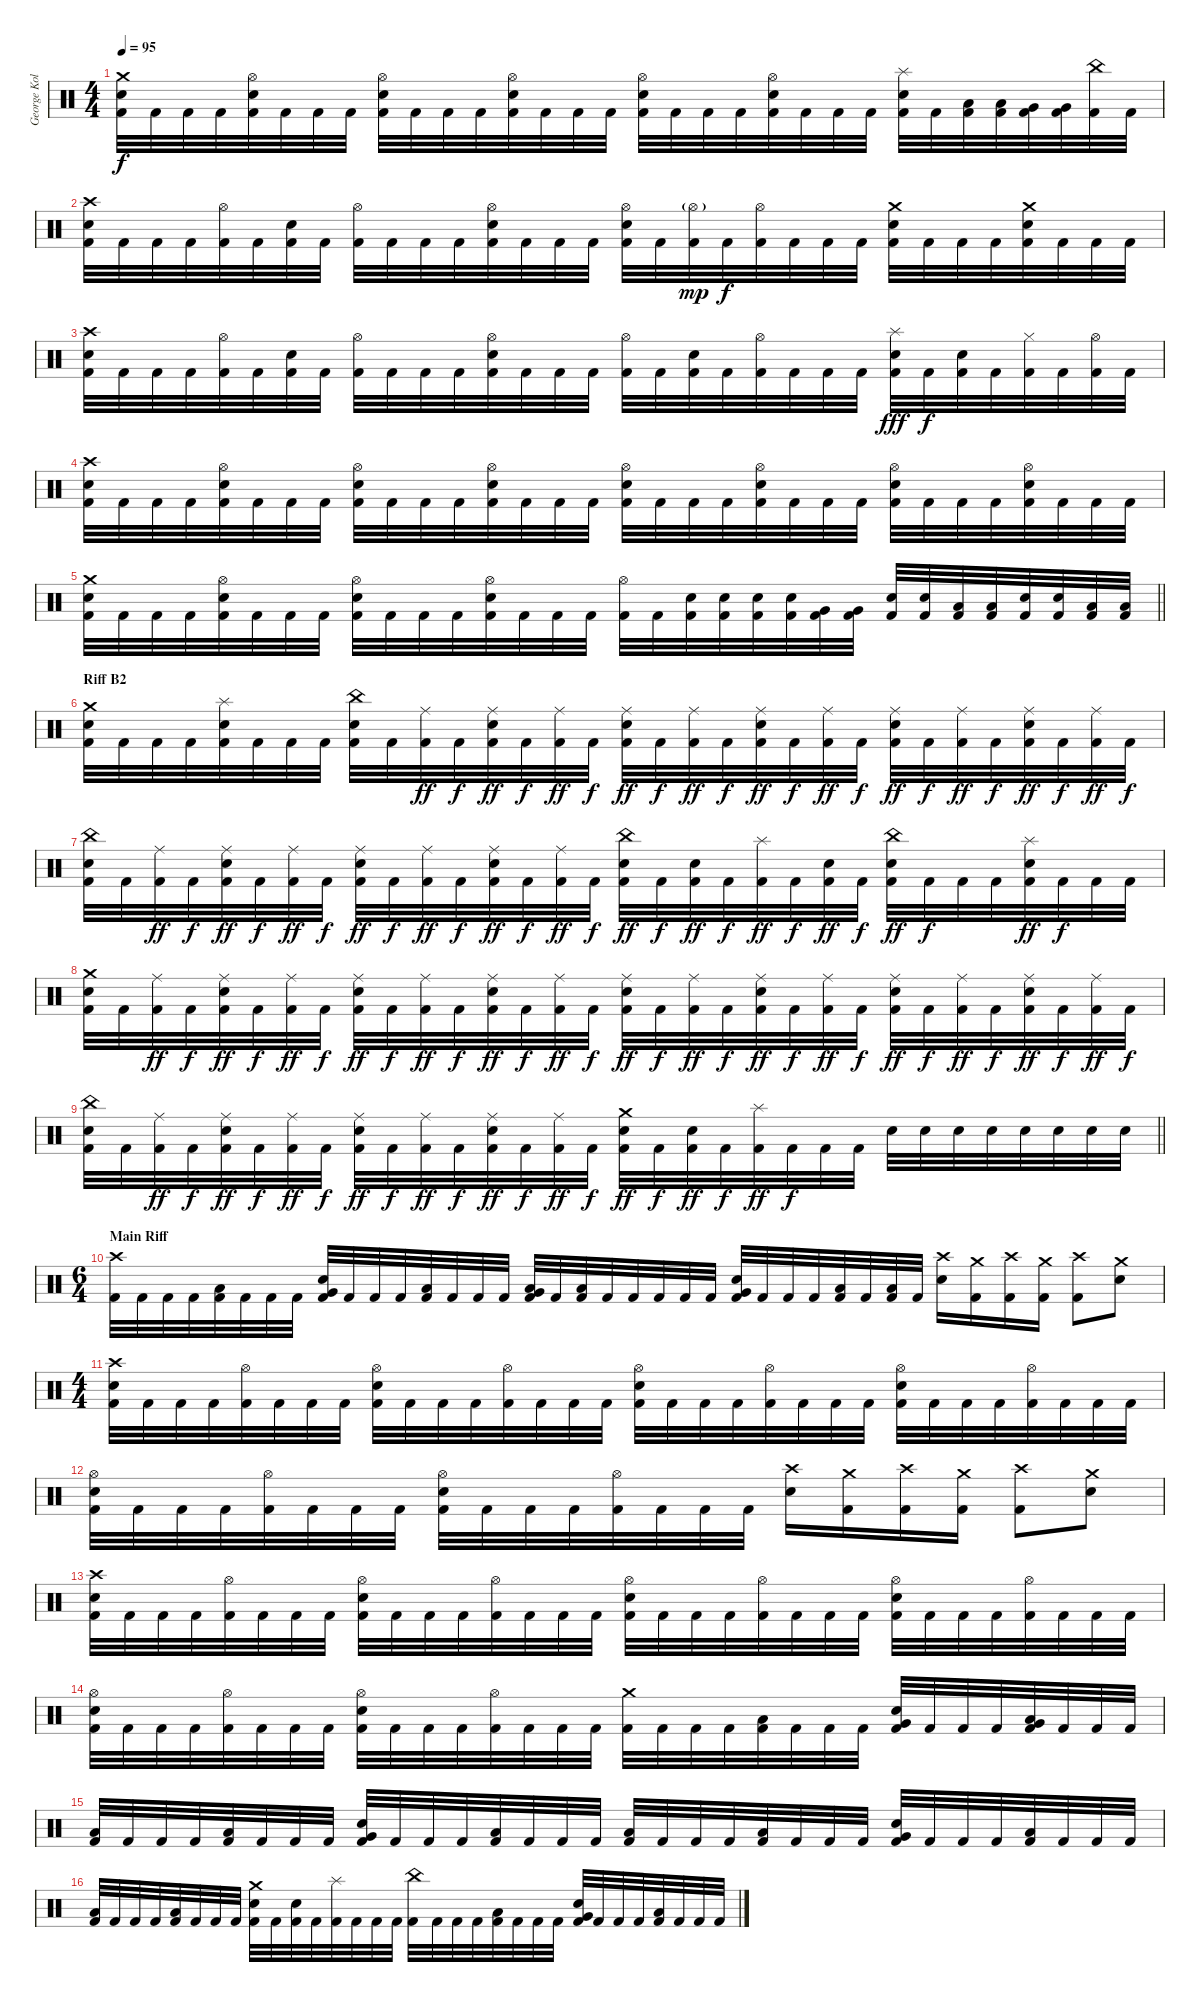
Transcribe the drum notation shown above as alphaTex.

\track ("George Kollias" "George Kol") {instrument percussion}
\staff {score}
\articulation defaults
\ts (4 4)
\tempo 95
\clef neutral
\ks c
("Crash medium (hit)" "Snare (hit) 2" "Kick (hit) 2").32{dy f} "Kick (hit) 2".32 "Kick (hit) 2".32 "Kick (hit) 2".32 ("Hi-Hat (open)" "Snare (hit) 2" "Kick (hit) 2").32 "Kick (hit) 2".32 "Kick (hit) 2".32 "Kick (hit) 2".32 ("Hi-Hat (open)" "Snare (hit) 2" "Kick (hit) 2").32 "Kick (hit) 2".32 "Kick (hit) 2".32 "Kick (hit) 2".32 ("Hi-Hat (open)" "Snare (hit) 2" "Kick (hit) 2").32 "Kick (hit) 2".32 "Kick (hit) 2".32 "Kick (hit) 2".32 ("Hi-Hat (open)" "Snare (hit) 2" "Kick (hit) 2").32 "Kick (hit) 2".32 "Kick (hit) 2".32 "Kick (hit) 2".32 ("Hi-Hat (open)" "Snare (hit) 2" "Kick (hit) 2").32 "Kick (hit) 2".32 "Kick (hit) 2".32 "Kick (hit) 2".32 ("Splash (hit)" "Snare (hit) 2" "Kick (hit) 2").32 "Kick (hit) 2".32 ("Low Tom (hit)" "Kick (hit) 2").32 ("Low Tom (hit)" "Kick (hit) 2").32 ("Very Low Tom (hit)" "Kick (hit) 2").32 ("Very Low Tom (hit)" "Kick (hit) 2").32 ("China (hit)" "Kick (hit) 2").32 "Kick (hit) 2".32 |
("Crash high (hit)" "Snare (hit) 2" "Kick (hit) 2").32 "Kick (hit) 2".32 "Kick (hit) 2".32 "Kick (hit) 2".32 ("Hi-Hat (open)" "Kick (hit) 2").32 "Kick (hit) 2".32 ("Snare (hit) 2" "Kick (hit) 2").32 "Kick (hit) 2".32 ("Hi-Hat (open)" "Kick (hit) 2").32 "Kick (hit) 2".32 "Kick (hit) 2".32 "Kick (hit) 2".32 ("Hi-Hat (open)" "Snare (hit) 2" "Kick (hit) 2").32 "Kick (hit) 2".32 "Kick (hit) 2".32 "Kick (hit) 2".32 ("Hi-Hat (open)" "Snare (hit) 2" "Kick (hit) 2").32 "Kick (hit) 2".32 ("Hi-Hat (open)"{g} "Kick (hit) 2").32{dy mp} "Kick (hit) 2".32{dy f} ("Hi-Hat (open)" "Kick (hit) 2").32 "Kick (hit) 2".32 "Kick (hit) 2".32 "Kick (hit) 2".32 ("Crash medium (hit)" "Snare (hit) 2" "Kick (hit) 2").32 "Kick (hit) 2".32 "Kick (hit) 2".32 "Kick (hit) 2".32 ("Crash medium (hit)" "Snare (hit) 2" "Kick (hit) 2").32 "Kick (hit) 2".32 "Kick (hit) 2".32 "Kick (hit) 2".32 |
("Crash high (hit)" "Snare (hit) 2" "Kick (hit) 2").32 "Kick (hit) 2".32 "Kick (hit) 2".32 "Kick (hit) 2".32 ("Hi-Hat (open)" "Kick (hit) 2").32 "Kick (hit) 2".32 ("Snare (hit) 2" "Kick (hit) 2").32 "Kick (hit) 2".32 ("Hi-Hat (open)" "Kick (hit) 2").32 "Kick (hit) 2".32 "Kick (hit) 2".32 "Kick (hit) 2".32 ("Hi-Hat (open)" "Snare (hit) 2" "Kick (hit) 2").32 "Kick (hit) 2".32 "Kick (hit) 2".32 "Kick (hit) 2".32 ("Hi-Hat (open)" "Kick (hit) 2").32 "Kick (hit) 2".32 ("Snare (hit) 2" "Kick (hit) 2").32 "Kick (hit) 2".32 ("Hi-Hat (open)" "Kick (hit) 2").32 "Kick (hit) 2".32 "Kick (hit) 2".32 "Kick (hit) 2".32 ("Splash (hit)" "Snare (hit) 2" "Kick (hit) 2").32{dy fff} "Kick (hit) 2".32{dy f} ("Snare (hit) 2" "Kick (hit) 2").32 "Kick (hit) 2".32 ("Hi-Hat (closed)" "Kick (hit) 2").32 "Kick (hit) 2".32 ("Hi-Hat (open)" "Kick (hit) 2").32 "Kick (hit) 2".32 |
("Crash high (hit)" "Snare (hit) 2" "Kick (hit) 2").32 "Kick (hit) 2".32 "Kick (hit) 2".32 "Kick (hit) 2".32 ("Hi-Hat (open)" "Snare (hit) 2" "Kick (hit) 2").32 "Kick (hit) 2".32 "Kick (hit) 2".32 "Kick (hit) 2".32 ("Hi-Hat (open)" "Snare (hit) 2" "Kick (hit) 2").32 "Kick (hit) 2".32 "Kick (hit) 2".32 "Kick (hit) 2".32 ("Hi-Hat (open)" "Snare (hit) 2" "Kick (hit) 2").32 "Kick (hit) 2".32 "Kick (hit) 2".32 "Kick (hit) 2".32 ("Hi-Hat (open)" "Snare (hit) 2" "Kick (hit) 2").32 "Kick (hit) 2".32 "Kick (hit) 2".32 "Kick (hit) 2".32 ("Hi-Hat (open)" "Snare (hit) 2" "Kick (hit) 2").32 "Kick (hit) 2".32 "Kick (hit) 2".32 "Kick (hit) 2".32 ("Hi-Hat (open)" "Snare (hit) 2" "Kick (hit) 2").32 "Kick (hit) 2".32 "Kick (hit) 2".32 "Kick (hit) 2".32 ("Hi-Hat (open)" "Snare (hit) 2" "Kick (hit) 2").32 "Kick (hit) 2".32 "Kick (hit) 2".32 "Kick (hit) 2".32 |
\barLineRight lightlight
("Crash medium (hit)" "Snare (hit) 2" "Kick (hit) 2").32 "Kick (hit) 2".32 "Kick (hit) 2".32 "Kick (hit) 2".32 ("Hi-Hat (open)" "Snare (hit) 2" "Kick (hit) 2").32 "Kick (hit) 2".32 "Kick (hit) 2".32 "Kick (hit) 2".32 ("Hi-Hat (open)" "Snare (hit) 2" "Kick (hit) 2").32 "Kick (hit) 2".32 "Kick (hit) 2".32 "Kick (hit) 2".32 ("Hi-Hat (open)" "Snare (hit) 2" "Kick (hit) 2").32 "Kick (hit) 2".32 "Kick (hit) 2".32 "Kick (hit) 2".32 ("Hi-Hat (open)" "Kick (hit) 2").32 "Kick (hit) 2".32 ("Snare (hit) 2" "Kick (hit) 2").32 ("Snare (hit) 2" "Kick (hit) 2").32 ("Snare (hit) 2" "Kick (hit) 2").32 ("Snare (hit) 2" "Kick (hit) 2").32 ("Very Low Tom (hit)" "Kick (hit) 2").32 ("Very Low Tom (hit)" "Kick (hit) 2").32 ("Snare (hit) 2" "Kick (hit) 2").32 ("Snare (hit) 2" "Kick (hit) 2").32 ("Low Tom (hit)" "Kick (hit) 2").32 ("Low Tom (hit)" "Kick (hit) 2").32 ("Snare (hit) 2" "Kick (hit) 2").32 ("Snare (hit) 2" "Kick (hit) 2").32 ("Low Floor Tom (hit)" "Kick (hit) 2").32 ("Low Floor Tom (hit)" "Kick (hit) 2").32 |
\section ("" "Riff B2 ")
("Crash medium (hit)" "Snare (hit) 2" "Kick (hit) 2").32 "Kick (hit) 2".32 "Kick (hit) 2".32 "Kick (hit) 2".32 ("Splash (hit)" "Snare (hit) 2" "Kick (hit) 2").32 "Kick (hit) 2".32 "Kick (hit) 2".32 "Kick (hit) 2".32 ("China (hit)" "Snare (hit) 2" "Kick (hit) 2").32 "Kick (hit) 2".32 ("Ride (middle)" "Kick (hit) 2").32{dy ff} "Kick (hit) 2".32{dy f} ("Ride (middle)" "Snare (hit) 2" "Kick (hit) 2").32{dy ff} "Kick (hit) 2".32{dy f} ("Ride (middle)" "Kick (hit) 2").32{dy ff} "Kick (hit) 2".32{dy f} ("Ride (middle)" "Snare (hit) 2" "Kick (hit) 2").32{dy ff} "Kick (hit) 2".32{dy f} ("Ride (middle)" "Kick (hit) 2").32{dy ff} "Kick (hit) 2".32{dy f} ("Ride (middle)" "Snare (hit) 2" "Kick (hit) 2").32{dy ff} "Kick (hit) 2".32{dy f} ("Ride (middle)" "Kick (hit) 2").32{dy ff} "Kick (hit) 2".32{dy f} ("Ride (middle)" "Snare (hit) 2" "Kick (hit) 2").32{dy ff} "Kick (hit) 2".32{dy f} ("Ride (middle)" "Kick (hit) 2").32{dy ff} "Kick (hit) 2".32{dy f} ("Ride (middle)" "Snare (hit) 2" "Kick (hit) 2").32{dy ff} "Kick (hit) 2".32{dy f} ("Ride (middle)" "Kick (hit) 2").32{dy ff} "Kick (hit) 2".32{dy f} |
("China (hit)" "Snare (hit) 2" "Kick (hit) 2").32 "Kick (hit) 2".32 ("Ride (middle)" "Kick (hit) 2").32{dy ff} "Kick (hit) 2".32{dy f} ("Ride (middle)" "Snare (hit) 2" "Kick (hit) 2").32{dy ff} "Kick (hit) 2".32{dy f} ("Ride (middle)" "Kick (hit) 2").32{dy ff} "Kick (hit) 2".32{dy f} ("Ride (middle)" "Snare (hit) 2" "Kick (hit) 2").32{dy ff} "Kick (hit) 2".32{dy f} ("Ride (middle)" "Kick (hit) 2").32{dy ff} "Kick (hit) 2".32{dy f} ("Ride (middle)" "Snare (hit) 2" "Kick (hit) 2").32{dy ff} "Kick (hit) 2".32{dy f} ("Ride (middle)" "Kick (hit) 2").32{dy ff} "Kick (hit) 2".32{dy f} ("China (hit)" "Snare (hit) 2" "Kick (hit) 2").32{dy ff} "Kick (hit) 2".32{dy f} ("Snare (hit) 2" "Kick (hit) 2").32{dy ff} "Kick (hit) 2".32{dy f} ("Splash (hit)" "Kick (hit) 2").32{dy ff} "Kick (hit) 2".32{dy f} ("Snare (hit) 2" "Kick (hit) 2").32{dy ff} "Kick (hit) 2".32{dy f} ("China (hit)" "Snare (hit) 2" "Kick (hit) 2").32{dy ff} "Kick (hit) 2".32{dy f} "Kick (hit) 2".32 "Kick (hit) 2".32 ("Splash (hit)" "Snare (hit) 2" "Kick (hit) 2").32{dy ff} "Kick (hit) 2".32{dy f} "Kick (hit) 2".32 "Kick (hit) 2".32 |
("Crash medium (hit)" "Snare (hit) 2" "Kick (hit) 2").32 "Kick (hit) 2".32 ("Ride (middle)" "Kick (hit) 2").32{dy ff} "Kick (hit) 2".32{dy f} ("Ride (middle)" "Snare (hit) 2" "Kick (hit) 2").32{dy ff} "Kick (hit) 2".32{dy f} ("Ride (middle)" "Kick (hit) 2").32{dy ff} "Kick (hit) 2".32{dy f} ("Ride (middle)" "Snare (hit) 2" "Kick (hit) 2").32{dy ff} "Kick (hit) 2".32{dy f} ("Ride (middle)" "Kick (hit) 2").32{dy ff} "Kick (hit) 2".32{dy f} ("Ride (middle)" "Snare (hit) 2" "Kick (hit) 2").32{dy ff} "Kick (hit) 2".32{dy f} ("Ride (middle)" "Kick (hit) 2").32{dy ff} "Kick (hit) 2".32{dy f} ("Ride (middle)" "Snare (hit) 2" "Kick (hit) 2").32{dy ff} "Kick (hit) 2".32{dy f} ("Ride (middle)" "Kick (hit) 2").32{dy ff} "Kick (hit) 2".32{dy f} ("Ride (middle)" "Snare (hit) 2" "Kick (hit) 2").32{dy ff} "Kick (hit) 2".32{dy f} ("Ride (middle)" "Kick (hit) 2").32{dy ff} "Kick (hit) 2".32{dy f} ("Ride (middle)" "Snare (hit) 2" "Kick (hit) 2").32{dy ff} "Kick (hit) 2".32{dy f} ("Ride (middle)" "Kick (hit) 2").32{dy ff} "Kick (hit) 2".32{dy f} ("Ride (middle)" "Snare (hit) 2" "Kick (hit) 2").32{dy ff} "Kick (hit) 2".32{dy f} ("Ride (middle)" "Kick (hit) 2").32{dy ff} "Kick (hit) 2".32{dy f} |
\barLineRight lightlight
("China (hit)" "Snare (hit) 2" "Kick (hit) 2").32 "Kick (hit) 2".32 ("Ride (middle)" "Kick (hit) 2").32{dy ff} "Kick (hit) 2".32{dy f} ("Ride (middle)" "Snare (hit) 2" "Kick (hit) 2").32{dy ff} "Kick (hit) 2".32{dy f} ("Ride (middle)" "Kick (hit) 2").32{dy ff} "Kick (hit) 2".32{dy f} ("Ride (middle)" "Snare (hit) 2" "Kick (hit) 2").32{dy ff} "Kick (hit) 2".32{dy f} ("Ride (middle)" "Kick (hit) 2").32{dy ff} "Kick (hit) 2".32{dy f} ("Ride (middle)" "Snare (hit) 2" "Kick (hit) 2").32{dy ff} "Kick (hit) 2".32{dy f} ("Ride (middle)" "Kick (hit) 2").32{dy ff} "Kick (hit) 2".32{dy f} ("Crash medium (hit)" "Snare (hit) 2" "Kick (hit) 2").32{dy ff} "Kick (hit) 2".32{dy f} ("Snare (hit) 2" "Kick (hit) 2").32{dy ff} "Kick (hit) 2".32{dy f} ("Splash (hit)" "Kick (hit) 2").32{dy ff} "Kick (hit) 2".32{dy f} "Kick (hit) 2".32 "Kick (hit) 2".32 "Snare (hit) 2".32 "Snare (hit) 2".32 "Snare (hit) 2".32 "Snare (hit) 2".32 "Snare (hit) 2".32 "Snare (hit) 2".32 "Snare (hit) 2".32 "Snare (hit) 2".32 |
\ts (6 4)
\section ("" "Main Riff")
("Crash high (hit)" "Kick (hit) 2").32 "Kick (hit) 2".32 "Kick (hit) 2".32 "Kick (hit) 2".32 ("Low Floor Tom (hit)" "Kick (hit) 2").32 "Kick (hit) 2".32 "Kick (hit) 2".32 "Kick (hit) 2".32 ("Very Low Tom (hit)" "Snare (hit) 2" "Kick (hit) 2").32 "Kick (hit) 2".32 "Kick (hit) 2".32 "Kick (hit) 2".32 ("Low Floor Tom (hit)" "Kick (hit) 2").32 "Kick (hit) 2".32 "Kick (hit) 2".32 "Kick (hit) 2".32 ("Very Low Tom (hit)" "Low Floor Tom (hit)" "Kick (hit) 2").32 "Kick (hit) 2".32 ("Low Floor Tom (hit)" "Kick (hit) 2").32 "Kick (hit) 2".32 "Kick (hit) 2".32 "Kick (hit) 2".32 "Kick (hit) 2".32 "Kick (hit) 2".32 ("Very Low Tom (hit)" "Snare (hit) 2" "Kick (hit) 2").32 "Kick (hit) 2".32 "Kick (hit) 2".32 "Kick (hit) 2".32 ("Low Floor Tom (hit)" "Kick (hit) 2").32 "Kick (hit) 2".32 ("Low Floor Tom (hit)" "Kick (hit) 2").32 "Kick (hit) 2".32 ("Crash high (hit)" "Snare (hit) 2").16 ("Crash medium (hit)" "Kick (hit) 2").16 ("Crash high (hit)" "Kick (hit) 2").16 ("Crash medium (hit)" "Kick (hit) 2").16 ("Crash high (hit)" "Kick (hit) 2").8 ("Crash medium (hit)" "Snare (hit) 2").8 |
\ts (4 4)
("Crash high (hit)" "Snare (hit) 2" "Kick (hit) 2").32 "Kick (hit) 2".32 "Kick (hit) 2".32 "Kick (hit) 2".32 ("Hi-Hat (open)" "Kick (hit) 2").32 "Kick (hit) 2".32 "Kick (hit) 2".32 "Kick (hit) 2".32 ("Hi-Hat (open)" "Snare (hit) 2" "Kick (hit) 2").32 "Kick (hit) 2".32 "Kick (hit) 2".32 "Kick (hit) 2".32 ("Hi-Hat (open)" "Kick (hit) 2").32 "Kick (hit) 2".32 "Kick (hit) 2".32 "Kick (hit) 2".32 ("Hi-Hat (open)" "Snare (hit) 2" "Kick (hit) 2").32 "Kick (hit) 2".32 "Kick (hit) 2".32 "Kick (hit) 2".32 ("Hi-Hat (open)" "Kick (hit) 2").32 "Kick (hit) 2".32 "Kick (hit) 2".32 "Kick (hit) 2".32 ("Hi-Hat (open)" "Snare (hit) 2" "Kick (hit) 2").32 "Kick (hit) 2".32 "Kick (hit) 2".32 "Kick (hit) 2".32 ("Hi-Hat (open)" "Kick (hit) 2").32 "Kick (hit) 2".32 "Kick (hit) 2".32 "Kick (hit) 2".32 |
("Hi-Hat (open)" "Snare (hit) 2" "Kick (hit) 2").32 "Kick (hit) 2".32 "Kick (hit) 2".32 "Kick (hit) 2".32 ("Hi-Hat (open)" "Kick (hit) 2").32 "Kick (hit) 2".32 "Kick (hit) 2".32 "Kick (hit) 2".32 ("Hi-Hat (open)" "Snare (hit) 2" "Kick (hit) 2").32 "Kick (hit) 2".32 "Kick (hit) 2".32 "Kick (hit) 2".32 ("Hi-Hat (open)" "Kick (hit) 2").32 "Kick (hit) 2".32 "Kick (hit) 2".32 "Kick (hit) 2".32 ("Crash high (hit)" "Snare (hit) 2").16 ("Crash medium (hit)" "Kick (hit) 2").16 ("Crash high (hit)" "Kick (hit) 2").16 ("Crash medium (hit)" "Kick (hit) 2").16 ("Crash high (hit)" "Kick (hit) 2").8 ("Crash medium (hit)" "Snare (hit) 2").8 |
("Crash high (hit)" "Snare (hit) 2" "Kick (hit) 2").32 "Kick (hit) 2".32 "Kick (hit) 2".32 "Kick (hit) 2".32 ("Hi-Hat (open)" "Kick (hit) 2").32 "Kick (hit) 2".32 "Kick (hit) 2".32 "Kick (hit) 2".32 ("Hi-Hat (open)" "Snare (hit) 2" "Kick (hit) 2").32 "Kick (hit) 2".32 "Kick (hit) 2".32 "Kick (hit) 2".32 ("Hi-Hat (open)" "Kick (hit) 2").32 "Kick (hit) 2".32 "Kick (hit) 2".32 "Kick (hit) 2".32 ("Hi-Hat (open)" "Snare (hit) 2" "Kick (hit) 2").32 "Kick (hit) 2".32 "Kick (hit) 2".32 "Kick (hit) 2".32 ("Hi-Hat (open)" "Kick (hit) 2").32 "Kick (hit) 2".32 "Kick (hit) 2".32 "Kick (hit) 2".32 ("Hi-Hat (open)" "Snare (hit) 2" "Kick (hit) 2").32 "Kick (hit) 2".32 "Kick (hit) 2".32 "Kick (hit) 2".32 ("Hi-Hat (open)" "Kick (hit) 2").32 "Kick (hit) 2".32 "Kick (hit) 2".32 "Kick (hit) 2".32 |
("Hi-Hat (open)" "Snare (hit) 2" "Kick (hit) 2").32 "Kick (hit) 2".32 "Kick (hit) 2".32 "Kick (hit) 2".32 ("Hi-Hat (open)" "Kick (hit) 2").32 "Kick (hit) 2".32 "Kick (hit) 2".32 "Kick (hit) 2".32 ("Hi-Hat (open)" "Snare (hit) 2" "Kick (hit) 2").32 "Kick (hit) 2".32 "Kick (hit) 2".32 "Kick (hit) 2".32 ("Hi-Hat (open)" "Kick (hit) 2").32 "Kick (hit) 2".32 "Kick (hit) 2".32 "Kick (hit) 2".32 ("Crash medium (hit)" "Kick (hit) 2").32 "Kick (hit) 2".32 "Kick (hit) 2".32 "Kick (hit) 2".32 ("Low Floor Tom (hit)" "Kick (hit) 2").32 "Kick (hit) 2".32 "Kick (hit) 2".32 "Kick (hit) 2".32 ("Very Low Tom (hit)" "Snare (hit) 2" "Kick (hit) 2").32 "Kick (hit) 2".32 "Kick (hit) 2".32 "Kick (hit) 2".32 ("Very Low Tom (hit)" "Low Floor Tom (hit)" "Kick (hit) 2").32 "Kick (hit) 2".32 "Kick (hit) 2".32 "Kick (hit) 2".32 |
("Low Floor Tom (hit)" "Kick (hit) 2").32 "Kick (hit) 2".32 "Kick (hit) 2".32 "Kick (hit) 2".32 ("Low Floor Tom (hit)" "Kick (hit) 2").32 "Kick (hit) 2".32 "Kick (hit) 2".32 "Kick (hit) 2".32 ("Very Low Tom (hit)" "Snare (hit) 2" "Kick (hit) 2").32 "Kick (hit) 2".32 "Kick (hit) 2".32 "Kick (hit) 2".32 ("Low Floor Tom (hit)" "Kick (hit) 2").32 "Kick (hit) 2".32 "Kick (hit) 2".32 "Kick (hit) 2".32 ("Low Floor Tom (hit)" "Kick (hit) 2").32 "Kick (hit) 2".32 "Kick (hit) 2".32 "Kick (hit) 2".32 ("Low Floor Tom (hit)" "Kick (hit) 2").32 "Kick (hit) 2".32 "Kick (hit) 2".32 "Kick (hit) 2".32 ("Very Low Tom (hit)" "Snare (hit) 2" "Kick (hit) 2").32 "Kick (hit) 2".32 "Kick (hit) 2".32 "Kick (hit) 2".32 ("Low Floor Tom (hit)" "Kick (hit) 2").32 "Kick (hit) 2".32 "Kick (hit) 2".32 "Kick (hit) 2".32 |
("Low Floor Tom (hit)" "Kick (hit) 2").32 "Kick (hit) 2".32 "Kick (hit) 2".32 "Kick (hit) 2".32 ("Low Floor Tom (hit)" "Kick (hit) 2").32 "Kick (hit) 2".32 "Kick (hit) 2".32 "Kick (hit) 2".32 ("Crash medium (hit)" "Snare (hit) 2" "Kick (hit) 2").32 "Kick (hit) 2".32 ("Snare (hit) 2" "Kick (hit) 2").32 "Kick (hit) 2".32 ("Splash (hit)" "Kick (hit) 2").32 "Kick (hit) 2".32 "Kick (hit) 2".32 "Kick (hit) 2".32 ("China (hit)" "Kick (hit) 2").32 "Kick (hit) 2".32 "Kick (hit) 2".32 "Kick (hit) 2".32 ("Low Floor Tom (hit)" "Kick (hit) 2").32 "Kick (hit) 2".32 "Kick (hit) 2".32 "Kick (hit) 2".32 ("Very Low Tom (hit)" "Snare (hit) 2" "Kick (hit) 2").32 "Kick (hit) 2".32 "Kick (hit) 2".32 "Kick (hit) 2".32 ("Low Floor Tom (hit)" "Kick (hit) 2").32 "Kick (hit) 2".32 "Kick (hit) 2".32 "Kick (hit) 2".32
